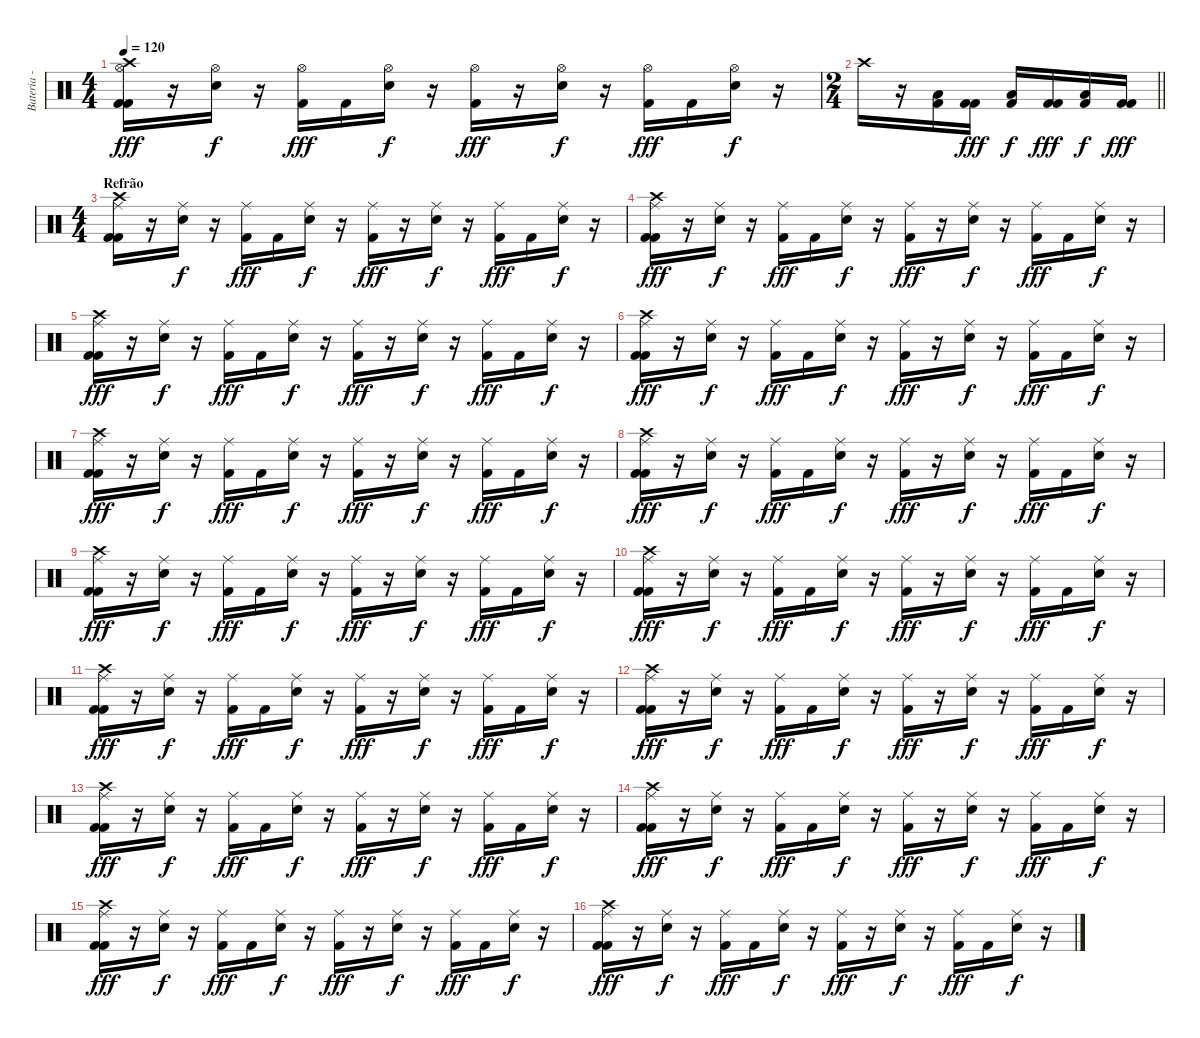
\track ("Bateria - Larzon" "Bateria - ") {instrument percussion}
\staff {score}
\articulation defaults
\ts (4 4)
\tempo 120
\clef neutral
\ks c
("Kick (hit) 2" "Kick (hit) 2" "Crash high (hit)" "Hi-Hat (open)").16{dy fff} r.16 ("Snare (hit) 2" "Hi-Hat (open)").16{dy f} r.16 ("Kick (hit) 2" "Hi-Hat (open)").16{dy fff} "Kick (hit) 2".16 ("Snare (hit) 2" "Hi-Hat (open)").16{dy f} r.16 ("Kick (hit) 2" "Hi-Hat (open)").16{dy fff} r.16 ("Snare (hit) 2" "Hi-Hat (open)").16{dy f} r.16 ("Kick (hit) 2" "Hi-Hat (open)").16{dy fff} "Kick (hit) 2".16 ("Snare (hit) 2" "Hi-Hat (open)").16{dy f} r.16 |
\ts (2 4)
\barLineRight lightlight "Crash high (hit)".16
r.16 ("Kick (hit) 2" "Low Floor Tom (hit)").16 ("Kick (hit) 2" "Kick (hit) 2").16{dy fff} ("Kick (hit) 2" "Low Floor Tom (hit)").16{dy f} ("Kick (hit) 2" "Kick (hit) 2").16{dy fff} ("Kick (hit) 2" "Low Floor Tom (hit)").16{dy f} ("Kick (hit) 2" "Kick (hit) 2").16{dy fff} |
\ts (4 4)
\section ("" "Refrão")
("Kick (hit) 2" "Kick (hit) 2" "Crash high (hit)" "Ride (middle)").16 r.16 ("Snare (hit) 2" "Ride (middle)").16{dy f} r.16 ("Kick (hit) 2" "Ride (middle)").16{dy fff} "Kick (hit) 2".16 ("Snare (hit) 2" "Ride (middle)").16{dy f} r.16 ("Kick (hit) 2" "Ride (middle)").16{dy fff} r.16 ("Snare (hit) 2" "Ride (middle)").16{dy f} r.16 ("Kick (hit) 2" "Ride (middle)").16{dy fff} "Kick (hit) 2".16 ("Snare (hit) 2" "Ride (middle)").16{dy f} r.16 |
("Kick (hit) 2" "Kick (hit) 2" "Crash high (hit)" "Ride (middle)").16{dy fff} r.16 ("Snare (hit) 2" "Ride (middle)").16{dy f} r.16 ("Kick (hit) 2" "Ride (middle)").16{dy fff} "Kick (hit) 2".16 ("Snare (hit) 2" "Ride (middle)").16{dy f} r.16 ("Kick (hit) 2" "Ride (middle)").16{dy fff} r.16 ("Snare (hit) 2" "Ride (middle)").16{dy f} r.16 ("Kick (hit) 2" "Ride (middle)").16{dy fff} "Kick (hit) 2".16 ("Snare (hit) 2" "Ride (middle)").16{dy f} r.16 |
("Kick (hit) 2" "Kick (hit) 2" "Crash high (hit)" "Ride (middle)").16{dy fff} r.16 ("Snare (hit) 2" "Ride (middle)").16{dy f} r.16 ("Kick (hit) 2" "Ride (middle)").16{dy fff} "Kick (hit) 2".16 ("Snare (hit) 2" "Ride (middle)").16{dy f} r.16 ("Kick (hit) 2" "Ride (middle)").16{dy fff} r.16 ("Snare (hit) 2" "Ride (middle)").16{dy f} r.16 ("Kick (hit) 2" "Ride (middle)").16{dy fff} "Kick (hit) 2".16 ("Snare (hit) 2" "Ride (middle)").16{dy f} r.16 |
("Kick (hit) 2" "Kick (hit) 2" "Crash high (hit)" "Ride (middle)").16{dy fff} r.16 ("Snare (hit) 2" "Ride (middle)").16{dy f} r.16 ("Kick (hit) 2" "Ride (middle)").16{dy fff} "Kick (hit) 2".16 ("Snare (hit) 2" "Ride (middle)").16{dy f} r.16 ("Kick (hit) 2" "Ride (middle)").16{dy fff} r.16 ("Snare (hit) 2" "Ride (middle)").16{dy f} r.16 ("Kick (hit) 2" "Ride (middle)").16{dy fff} "Kick (hit) 2".16 ("Snare (hit) 2" "Ride (middle)").16{dy f} r.16 |
("Kick (hit) 2" "Kick (hit) 2" "Crash high (hit)" "Ride (middle)").16{dy fff} r.16 ("Snare (hit) 2" "Ride (middle)").16{dy f} r.16 ("Kick (hit) 2" "Ride (middle)").16{dy fff} "Kick (hit) 2".16 ("Snare (hit) 2" "Ride (middle)").16{dy f} r.16 ("Kick (hit) 2" "Ride (middle)").16{dy fff} r.16 ("Snare (hit) 2" "Ride (middle)").16{dy f} r.16 ("Kick (hit) 2" "Ride (middle)").16{dy fff} "Kick (hit) 2".16 ("Snare (hit) 2" "Ride (middle)").16{dy f} r.16 |
("Kick (hit) 2" "Kick (hit) 2" "Crash high (hit)" "Ride (middle)").16{dy fff} r.16 ("Snare (hit) 2" "Ride (middle)").16{dy f} r.16 ("Kick (hit) 2" "Ride (middle)").16{dy fff} "Kick (hit) 2".16 ("Snare (hit) 2" "Ride (middle)").16{dy f} r.16 ("Kick (hit) 2" "Ride (middle)").16{dy fff} r.16 ("Snare (hit) 2" "Ride (middle)").16{dy f} r.16 ("Kick (hit) 2" "Ride (middle)").16{dy fff} "Kick (hit) 2".16 ("Snare (hit) 2" "Ride (middle)").16{dy f} r.16 |
("Kick (hit) 2" "Kick (hit) 2" "Crash high (hit)" "Ride (middle)").16{dy fff} r.16 ("Snare (hit) 2" "Ride (middle)").16{dy f} r.16 ("Kick (hit) 2" "Ride (middle)").16{dy fff} "Kick (hit) 2".16 ("Snare (hit) 2" "Ride (middle)").16{dy f} r.16 ("Kick (hit) 2" "Ride (middle)").16{dy fff} r.16 ("Snare (hit) 2" "Ride (middle)").16{dy f} r.16 ("Kick (hit) 2" "Ride (middle)").16{dy fff} "Kick (hit) 2".16 ("Snare (hit) 2" "Ride (middle)").16{dy f} r.16 |
("Kick (hit) 2" "Kick (hit) 2" "Crash high (hit)" "Ride (middle)").16{dy fff} r.16 ("Snare (hit) 2" "Ride (middle)").16{dy f} r.16 ("Kick (hit) 2" "Ride (middle)").16{dy fff} "Kick (hit) 2".16 ("Snare (hit) 2" "Ride (middle)").16{dy f} r.16 ("Kick (hit) 2" "Ride (middle)").16{dy fff} r.16 ("Snare (hit) 2" "Ride (middle)").16{dy f} r.16 ("Kick (hit) 2" "Ride (middle)").16{dy fff} "Kick (hit) 2".16 ("Snare (hit) 2" "Ride (middle)").16{dy f} r.16 |
("Kick (hit) 2" "Kick (hit) 2" "Crash high (hit)" "Ride (middle)").16{dy fff} r.16 ("Snare (hit) 2" "Ride (middle)").16{dy f} r.16 ("Kick (hit) 2" "Ride (middle)").16{dy fff} "Kick (hit) 2".16 ("Snare (hit) 2" "Ride (middle)").16{dy f} r.16 ("Kick (hit) 2" "Ride (middle)").16{dy fff} r.16 ("Snare (hit) 2" "Ride (middle)").16{dy f} r.16 ("Kick (hit) 2" "Ride (middle)").16{dy fff} "Kick (hit) 2".16 ("Snare (hit) 2" "Ride (middle)").16{dy f} r.16 |
("Kick (hit) 2" "Kick (hit) 2" "Crash high (hit)" "Ride (middle)").16{dy fff} r.16 ("Snare (hit) 2" "Ride (middle)").16{dy f} r.16 ("Kick (hit) 2" "Ride (middle)").16{dy fff} "Kick (hit) 2".16 ("Snare (hit) 2" "Ride (middle)").16{dy f} r.16 ("Kick (hit) 2" "Ride (middle)").16{dy fff} r.16 ("Snare (hit) 2" "Ride (middle)").16{dy f} r.16 ("Kick (hit) 2" "Ride (middle)").16{dy fff} "Kick (hit) 2".16 ("Snare (hit) 2" "Ride (middle)").16{dy f} r.16 |
("Kick (hit) 2" "Kick (hit) 2" "Crash high (hit)" "Ride (middle)").16{dy fff} r.16 ("Snare (hit) 2" "Ride (middle)").16{dy f} r.16 ("Kick (hit) 2" "Ride (middle)").16{dy fff} "Kick (hit) 2".16 ("Snare (hit) 2" "Ride (middle)").16{dy f} r.16 ("Kick (hit) 2" "Ride (middle)").16{dy fff} r.16 ("Snare (hit) 2" "Ride (middle)").16{dy f} r.16 ("Kick (hit) 2" "Ride (middle)").16{dy fff} "Kick (hit) 2".16 ("Snare (hit) 2" "Ride (middle)").16{dy f} r.16 |
("Kick (hit) 2" "Kick (hit) 2" "Crash high (hit)" "Ride (middle)").16{dy fff} r.16 ("Snare (hit) 2" "Ride (middle)").16{dy f} r.16 ("Kick (hit) 2" "Ride (middle)").16{dy fff} "Kick (hit) 2".16 ("Snare (hit) 2" "Ride (middle)").16{dy f} r.16 ("Kick (hit) 2" "Ride (middle)").16{dy fff} r.16 ("Snare (hit) 2" "Ride (middle)").16{dy f} r.16 ("Kick (hit) 2" "Ride (middle)").16{dy fff} "Kick (hit) 2".16 ("Snare (hit) 2" "Ride (middle)").16{dy f} r.16 |
("Kick (hit) 2" "Kick (hit) 2" "Crash high (hit)" "Ride (middle)").16{dy fff} r.16 ("Snare (hit) 2" "Ride (middle)").16{dy f} r.16 ("Kick (hit) 2" "Ride (middle)").16{dy fff} "Kick (hit) 2".16 ("Snare (hit) 2" "Ride (middle)").16{dy f} r.16 ("Kick (hit) 2" "Ride (middle)").16{dy fff} r.16 ("Snare (hit) 2" "Ride (middle)").16{dy f} r.16 ("Kick (hit) 2" "Ride (middle)").16{dy fff} "Kick (hit) 2".16 ("Snare (hit) 2" "Ride (middle)").16{dy f} r.16 |
("Kick (hit) 2" "Kick (hit) 2" "Crash high (hit)" "Ride (middle)").16{dy fff} r.16 ("Snare (hit) 2" "Ride (middle)").16{dy f} r.16 ("Kick (hit) 2" "Ride (middle)").16{dy fff} "Kick (hit) 2".16 ("Snare (hit) 2" "Ride (middle)").16{dy f} r.16 ("Kick (hit) 2" "Ride (middle)").16{dy fff} r.16 ("Snare (hit) 2" "Ride (middle)").16{dy f} r.16 ("Kick (hit) 2" "Ride (middle)").16{dy fff} "Kick (hit) 2".16 ("Snare (hit) 2" "Ride (middle)").16{dy f} r.16
